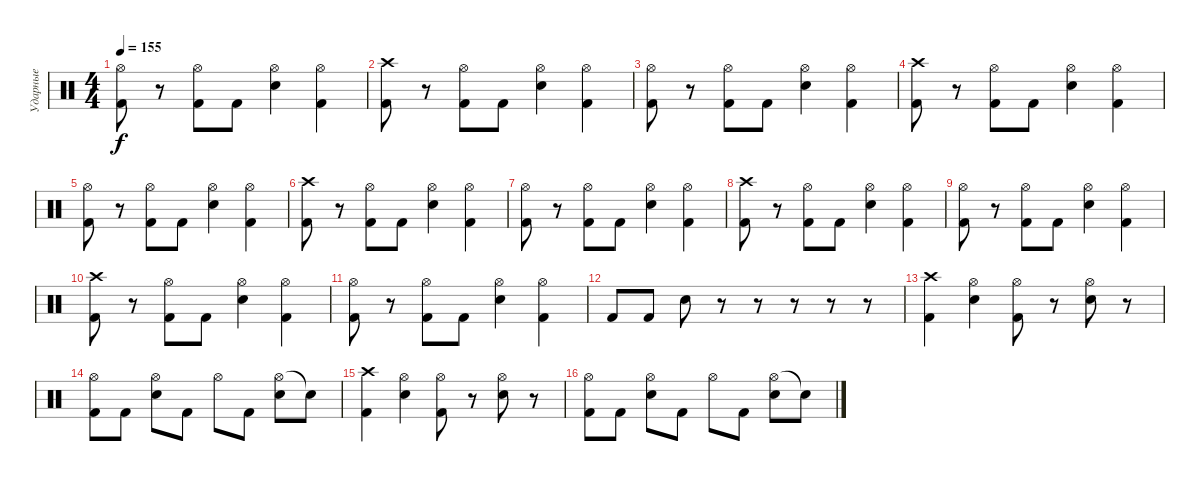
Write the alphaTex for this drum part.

\track ("Ударные" "Ударные") {instrument percussion}
\staff {score}
\articulation defaults
\ts (4 4)
\tempo 155
\clef neutral
\ks c
("Hi-Hat (open)" "Kick (hit) 2").8{dy f} r.8 ("Hi-Hat (open)" "Kick (hit) 2").8 "Kick (hit) 2".8 ("Hi-Hat (open)" "Electric Snare (hit)").4 ("Hi-Hat (open)" "Kick (hit) 2").4 |
("Crash high (hit)" "Kick (hit) 2").8 r.8 ("Hi-Hat (open)" "Kick (hit) 2").8 "Kick (hit) 2".8 ("Hi-Hat (open)" "Electric Snare (hit)").4 ("Hi-Hat (open)" "Kick (hit) 2").4 |
("Hi-Hat (open)" "Kick (hit) 2").8 r.8 ("Hi-Hat (open)" "Kick (hit) 2").8 "Kick (hit) 2".8 ("Hi-Hat (open)" "Electric Snare (hit)").4 ("Hi-Hat (open)" "Kick (hit) 2").4 |
("Crash high (hit)" "Kick (hit) 2").8 r.8 ("Hi-Hat (open)" "Kick (hit) 2").8 "Kick (hit) 2".8 ("Hi-Hat (open)" "Electric Snare (hit)").4 ("Hi-Hat (open)" "Kick (hit) 2").4 |
("Hi-Hat (open)" "Kick (hit) 2").8 r.8 ("Hi-Hat (open)" "Kick (hit) 2").8 "Kick (hit) 2".8 ("Hi-Hat (open)" "Electric Snare (hit)").4 ("Hi-Hat (open)" "Kick (hit) 2").4 |
("Crash high (hit)" "Kick (hit) 2").8 r.8 ("Hi-Hat (open)" "Kick (hit) 2").8 "Kick (hit) 2".8 ("Hi-Hat (open)" "Electric Snare (hit)").4 ("Hi-Hat (open)" "Kick (hit) 2").4 |
("Hi-Hat (open)" "Kick (hit) 2").8 r.8 ("Hi-Hat (open)" "Kick (hit) 2").8 "Kick (hit) 2".8 ("Hi-Hat (open)" "Electric Snare (hit)").4 ("Hi-Hat (open)" "Kick (hit) 2").4 |
("Crash high (hit)" "Kick (hit) 2").8 r.8 ("Hi-Hat (open)" "Kick (hit) 2").8 "Kick (hit) 2".8 ("Hi-Hat (open)" "Electric Snare (hit)").4 ("Hi-Hat (open)" "Kick (hit) 2").4 |
("Hi-Hat (open)" "Kick (hit) 2").8 r.8 ("Hi-Hat (open)" "Kick (hit) 2").8 "Kick (hit) 2".8 ("Hi-Hat (open)" "Electric Snare (hit)").4 ("Hi-Hat (open)" "Kick (hit) 2").4 |
("Crash high (hit)" "Kick (hit) 2").8 r.8 ("Hi-Hat (open)" "Kick (hit) 2").8 "Kick (hit) 2".8 ("Hi-Hat (open)" "Electric Snare (hit)").4 ("Hi-Hat (open)" "Kick (hit) 2").4 |
("Hi-Hat (open)" "Kick (hit) 2").8 r.8 ("Hi-Hat (open)" "Kick (hit) 2").8 "Kick (hit) 2".8 ("Hi-Hat (open)" "Electric Snare (hit)").4 ("Hi-Hat (open)" "Kick (hit) 2").4 |
"Kick (hit) 2".8 "Kick (hit) 2".8 "Electric Snare (hit)".8 r.8 r.8 r.8 r.8 r.8 |
("Crash high (hit)" "Kick (hit) 2").4 ("Hi-Hat (open)" "Electric Snare (hit)").4 ("Hi-Hat (open)" "Kick (hit) 2").8 r.8 ("Hi-Hat (open)" "Electric Snare (hit)").8 r.8 |
("Hi-Hat (open)" "Kick (hit) 2").8 "Kick (hit) 2".8 ("Hi-Hat (open)" "Electric Snare (hit)").8 "Kick (hit) 2".8 "Hi-Hat (open)".8 "Kick (hit) 2".8 ("Hi-Hat (open)" "Electric Snare (hit)").8 "Snare (hit)"{t}.8 |
("Crash high (hit)" "Kick (hit) 2").4 ("Hi-Hat (open)" "Electric Snare (hit)").4 ("Hi-Hat (open)" "Kick (hit) 2").8 r.8 ("Hi-Hat (open)" "Electric Snare (hit)").8 r.8 |
("Hi-Hat (open)" "Kick (hit) 2").8 "Kick (hit) 2".8 ("Hi-Hat (open)" "Electric Snare (hit)").8 "Kick (hit) 2".8 "Hi-Hat (open)".8 "Kick (hit) 2".8 ("Hi-Hat (open)" "Electric Snare (hit)").8 "Snare (hit)"{t}.8
